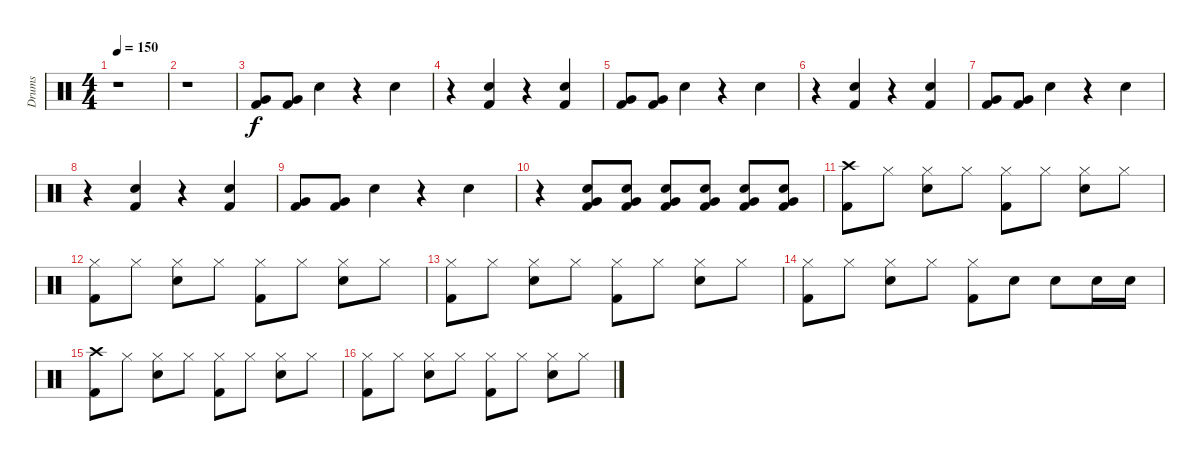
\track ("Drums" "Drums") {instrument percussion}
\staff {score}
\articulation defaults
\ts (4 4)
\tempo 150
\clef neutral
\ks c
r.1{dy f} |
r.1 |
("Very Low Tom (hit)" "Kick (hit) 2").8 ("Very Low Tom (hit)" "Kick (hit) 2").8 "Electric Snare (hit)".4 r.4 "Electric Snare (hit)".4 |
r.4 ("Electric Snare (hit)" "Kick (hit) 2").4 r.4 ("Electric Snare (hit)" "Kick (hit) 2").4 |
("Very Low Tom (hit)" "Kick (hit) 2").8 ("Very Low Tom (hit)" "Kick (hit) 2").8 "Electric Snare (hit)".4 r.4 "Electric Snare (hit)".4 |
r.4 ("Electric Snare (hit)" "Kick (hit) 2").4 r.4 ("Electric Snare (hit)" "Kick (hit) 2").4 |
("Very Low Tom (hit)" "Kick (hit) 2").8 ("Very Low Tom (hit)" "Kick (hit) 2").8 "Electric Snare (hit)".4 r.4 "Electric Snare (hit)".4 |
r.4 ("Electric Snare (hit)" "Kick (hit) 2").4 r.4 ("Electric Snare (hit)" "Kick (hit) 2").4 |
("Very Low Tom (hit)" "Kick (hit) 2").8 ("Very Low Tom (hit)" "Kick (hit) 2").8 "Electric Snare (hit)".4 r.4 "Electric Snare (hit)".4 |
r.4 ("Electric Snare (hit)" "Very Low Tom (hit)" "Kick (hit) 2").8 ("Electric Snare (hit)" "Very Low Tom (hit)" "Kick (hit) 2").8 ("Electric Snare (hit)" "Very Low Tom (hit)" "Kick (hit) 2").8 ("Electric Snare (hit)" "Very Low Tom (hit)" "Kick (hit) 2").8 ("Electric Snare (hit)" "Very Low Tom (hit)" "Kick (hit) 2").8 ("Electric Snare (hit)" "Very Low Tom (hit)" "Kick (hit) 2").8 |
("Crash high (hit)" "Kick (hit) 2").8 "Hi-Hat (closed)".8 ("Hi-Hat (closed)" "Electric Snare (hit)").8 "Hi-Hat (closed)".8 ("Hi-Hat (closed)" "Kick (hit) 2").8 "Hi-Hat (closed)".8 ("Hi-Hat (closed)" "Electric Snare (hit)").8 "Hi-Hat (closed)".8 |
("Hi-Hat (closed)" "Kick (hit) 2").8 "Hi-Hat (closed)".8 ("Hi-Hat (closed)" "Electric Snare (hit)").8 "Hi-Hat (closed)".8 ("Hi-Hat (closed)" "Kick (hit) 2").8 "Hi-Hat (closed)".8 ("Hi-Hat (closed)" "Electric Snare (hit)").8 "Hi-Hat (closed)".8 |
("Hi-Hat (closed)" "Kick (hit) 2").8 "Hi-Hat (closed)".8 ("Hi-Hat (closed)" "Electric Snare (hit)").8 "Hi-Hat (closed)".8 ("Hi-Hat (closed)" "Kick (hit) 2").8 "Hi-Hat (closed)".8 ("Hi-Hat (closed)" "Electric Snare (hit)").8 "Hi-Hat (closed)".8 |
("Hi-Hat (closed)" "Kick (hit) 2").8 "Hi-Hat (closed)".8 ("Hi-Hat (closed)" "Electric Snare (hit)").8 "Hi-Hat (closed)".8 ("Hi-Hat (closed)" "Kick (hit) 2").8 "Electric Snare (hit)".8 "Electric Snare (hit)".8 "Electric Snare (hit)".16 "Electric Snare (hit)".16 |
("Crash high (hit)" "Kick (hit) 2").8 "Hi-Hat (closed)".8 ("Hi-Hat (closed)" "Electric Snare (hit)").8 "Hi-Hat (closed)".8 ("Hi-Hat (closed)" "Kick (hit) 2").8 "Hi-Hat (closed)".8 ("Hi-Hat (closed)" "Electric Snare (hit)").8 "Hi-Hat (closed)".8 |
("Hi-Hat (closed)" "Kick (hit) 2").8 "Hi-Hat (closed)".8 ("Hi-Hat (closed)" "Electric Snare (hit)").8 "Hi-Hat (closed)".8 ("Hi-Hat (closed)" "Kick (hit) 2").8 "Hi-Hat (closed)".8 ("Hi-Hat (closed)" "Electric Snare (hit)").8 "Hi-Hat (closed)".8
